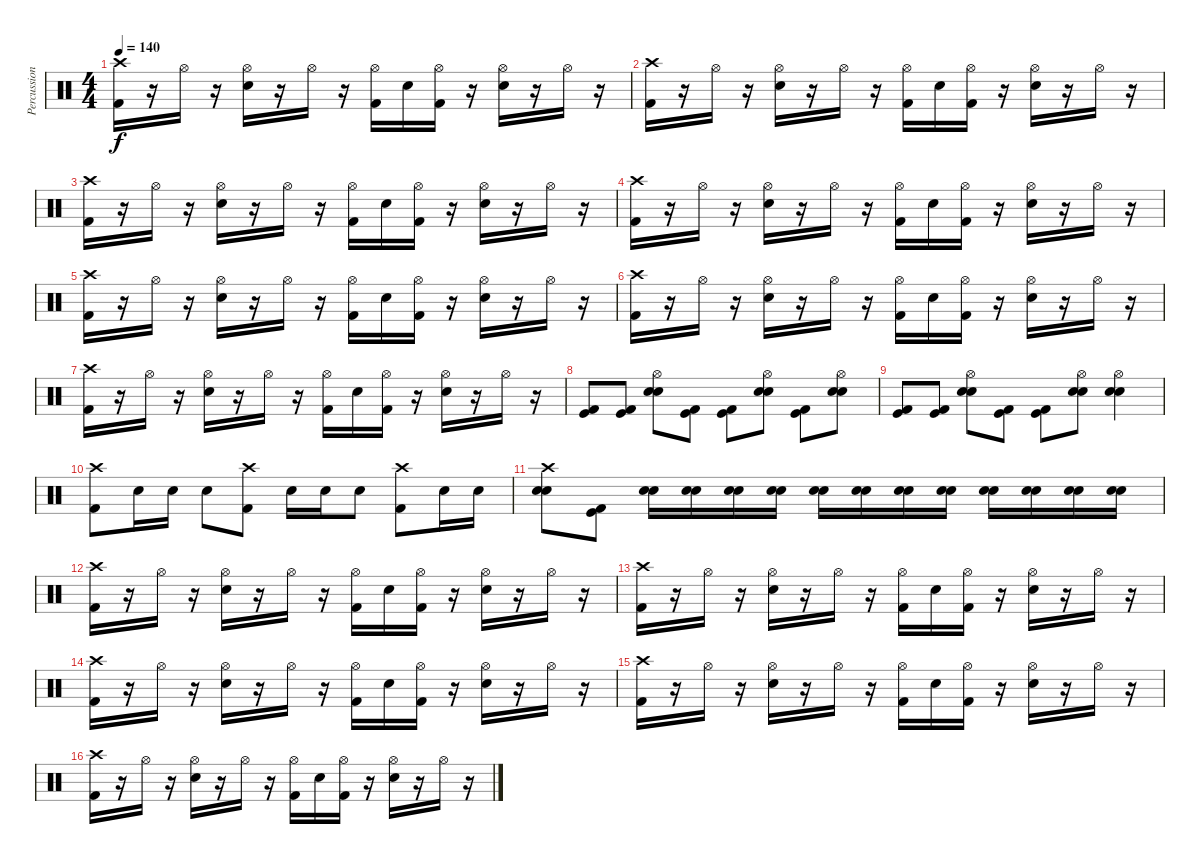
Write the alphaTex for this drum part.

\track ("Percussions" "Percussion") {instrument percussion}
\staff {score}
\articulation defaults
\ts (4 4)
\tempo 140
\clef neutral
\ks c
("Crash high (hit)" "Kick (hit) 2").16{dy f} r.16 "Hi-Hat (open)".16 r.16 ("Hi-Hat (open)" "Electric Snare (hit)").16 r.16 "Hi-Hat (open)".16 r.16 ("Hi-Hat (open)" "Kick (hit) 2").16 "Electric Snare (hit)".16 ("Hi-Hat (open)" "Kick (hit) 2").16 r.16 ("Hi-Hat (open)" "Electric Snare (hit)").16 r.16 "Hi-Hat (open)".16 r.16 |
("Crash high (hit)" "Kick (hit) 2").16 r.16 "Hi-Hat (open)".16 r.16 ("Hi-Hat (open)" "Electric Snare (hit)").16 r.16 "Hi-Hat (open)".16 r.16 ("Hi-Hat (open)" "Kick (hit) 2").16 "Electric Snare (hit)".16 ("Hi-Hat (open)" "Kick (hit) 2").16 r.16 ("Hi-Hat (open)" "Electric Snare (hit)").16 r.16 "Hi-Hat (open)".16 r.16 |
("Crash high (hit)" "Kick (hit) 2").16 r.16 "Hi-Hat (open)".16 r.16 ("Hi-Hat (open)" "Electric Snare (hit)").16 r.16 "Hi-Hat (open)".16 r.16 ("Hi-Hat (open)" "Kick (hit) 2").16 "Electric Snare (hit)".16 ("Hi-Hat (open)" "Kick (hit) 2").16 r.16 ("Hi-Hat (open)" "Electric Snare (hit)").16 r.16 "Hi-Hat (open)".16 r.16 |
("Crash high (hit)" "Kick (hit) 2").16 r.16 "Hi-Hat (open)".16 r.16 ("Hi-Hat (open)" "Electric Snare (hit)").16 r.16 "Hi-Hat (open)".16 r.16 ("Hi-Hat (open)" "Kick (hit) 2").16 "Electric Snare (hit)".16 ("Hi-Hat (open)" "Kick (hit) 2").16 r.16 ("Hi-Hat (open)" "Electric Snare (hit)").16 r.16 "Hi-Hat (open)".16 r.16 |
("Crash high (hit)" "Kick (hit) 2").16 r.16 "Hi-Hat (open)".16 r.16 ("Hi-Hat (open)" "Electric Snare (hit)").16 r.16 "Hi-Hat (open)".16 r.16 ("Hi-Hat (open)" "Kick (hit) 2").16 "Electric Snare (hit)".16 ("Hi-Hat (open)" "Kick (hit) 2").16 r.16 ("Hi-Hat (open)" "Electric Snare (hit)").16 r.16 "Hi-Hat (open)".16 r.16 |
("Crash high (hit)" "Kick (hit) 2").16 r.16 "Hi-Hat (open)".16 r.16 ("Hi-Hat (open)" "Electric Snare (hit)").16 r.16 "Hi-Hat (open)".16 r.16 ("Hi-Hat (open)" "Kick (hit) 2").16 "Electric Snare (hit)".16 ("Hi-Hat (open)" "Kick (hit) 2").16 r.16 ("Hi-Hat (open)" "Electric Snare (hit)").16 r.16 "Hi-Hat (open)".16 r.16 |
("Crash high (hit)" "Kick (hit) 2").16 r.16 "Hi-Hat (open)".16 r.16 ("Hi-Hat (open)" "Electric Snare (hit)").16 r.16 "Hi-Hat (open)".16 r.16 ("Hi-Hat (open)" "Kick (hit) 2").16 "Electric Snare (hit)".16 ("Hi-Hat (open)" "Kick (hit) 2").16 r.16 ("Hi-Hat (open)" "Electric Snare (hit)").16 r.16 "Hi-Hat (open)".16 r.16 |
("Kick (hit)" "Kick (hit) 2").8 ("Kick (hit)" "Kick (hit) 2").8 ("Hi-Hat (open)" "Snare (hit) 2" "Electric Snare (hit)").8 ("Kick (hit)" "Kick (hit) 2").8 ("Kick (hit)" "Kick (hit) 2").8 ("Hi-Hat (open)" "Snare (hit) 2" "Electric Snare (hit)").8 ("Kick (hit)" "Kick (hit) 2").8 ("Hi-Hat (open)" "Snare (hit) 2" "Electric Snare (hit)").8 |
("Kick (hit)" "Kick (hit) 2").8 ("Kick (hit)" "Kick (hit) 2").8 ("Hi-Hat (open)" "Snare (hit) 2" "Electric Snare (hit)").8 ("Kick (hit)" "Kick (hit) 2").8 ("Kick (hit)" "Kick (hit) 2").8 ("Hi-Hat (open)" "Snare (hit) 2" "Electric Snare (hit)").8 ("Hi-Hat (open)" "Snare (hit) 2" "Electric Snare (hit)").4 |
("Crash high (hit)" "Kick (hit) 2").8 "Electric Snare (hit)".16 "Electric Snare (hit)".16 "Electric Snare (hit)".8 ("Crash high (hit)" "Kick (hit) 2").8 "Electric Snare (hit)".16 "Electric Snare (hit)".16 "Electric Snare (hit)".8 ("Crash high (hit)" "Kick (hit) 2").8 "Electric Snare (hit)".16 "Electric Snare (hit)".16 |
("Crash high (hit)" "Snare (hit) 2" "Electric Snare (hit)").8 ("Kick (hit)" "Kick (hit) 2").8 ("Snare (hit) 2" "Electric Snare (hit)").16 ("Snare (hit) 2" "Electric Snare (hit)").16 ("Snare (hit) 2" "Electric Snare (hit)").16 ("Snare (hit) 2" "Electric Snare (hit)").16 ("Snare (hit) 2" "Electric Snare (hit)").16 ("Snare (hit) 2" "Electric Snare (hit)").16 ("Snare (hit) 2" "Electric Snare (hit)").16 ("Snare (hit) 2" "Electric Snare (hit)").16 ("Snare (hit) 2" "Electric Snare (hit)").16 ("Snare (hit) 2" "Electric Snare (hit)").16 ("Snare (hit) 2" "Electric Snare (hit)").16 ("Snare (hit) 2" "Electric Snare (hit)").16 |
("Crash high (hit)" "Kick (hit) 2").16 r.16 "Hi-Hat (open)".16 r.16 ("Hi-Hat (open)" "Electric Snare (hit)").16 r.16 "Hi-Hat (open)".16 r.16 ("Hi-Hat (open)" "Kick (hit) 2").16 "Electric Snare (hit)".16 ("Hi-Hat (open)" "Kick (hit) 2").16 r.16 ("Hi-Hat (open)" "Electric Snare (hit)").16 r.16 "Hi-Hat (open)".16 r.16 |
("Crash high (hit)" "Kick (hit) 2").16 r.16 "Hi-Hat (open)".16 r.16 ("Hi-Hat (open)" "Electric Snare (hit)").16 r.16 "Hi-Hat (open)".16 r.16 ("Hi-Hat (open)" "Kick (hit) 2").16 "Electric Snare (hit)".16 ("Hi-Hat (open)" "Kick (hit) 2").16 r.16 ("Hi-Hat (open)" "Electric Snare (hit)").16 r.16 "Hi-Hat (open)".16 r.16 |
("Crash high (hit)" "Kick (hit) 2").16 r.16 "Hi-Hat (open)".16 r.16 ("Hi-Hat (open)" "Electric Snare (hit)").16 r.16 "Hi-Hat (open)".16 r.16 ("Hi-Hat (open)" "Kick (hit) 2").16 "Electric Snare (hit)".16 ("Hi-Hat (open)" "Kick (hit) 2").16 r.16 ("Hi-Hat (open)" "Electric Snare (hit)").16 r.16 "Hi-Hat (open)".16 r.16 |
("Crash high (hit)" "Kick (hit) 2").16 r.16 "Hi-Hat (open)".16 r.16 ("Hi-Hat (open)" "Electric Snare (hit)").16 r.16 "Hi-Hat (open)".16 r.16 ("Hi-Hat (open)" "Kick (hit) 2").16 "Electric Snare (hit)".16 ("Hi-Hat (open)" "Kick (hit) 2").16 r.16 ("Hi-Hat (open)" "Electric Snare (hit)").16 r.16 "Hi-Hat (open)".16 r.16 |
("Crash high (hit)" "Kick (hit) 2").16 r.16 "Hi-Hat (open)".16 r.16 ("Hi-Hat (open)" "Electric Snare (hit)").16 r.16 "Hi-Hat (open)".16 r.16 ("Hi-Hat (open)" "Kick (hit) 2").16 "Electric Snare (hit)".16 ("Hi-Hat (open)" "Kick (hit) 2").16 r.16 ("Hi-Hat (open)" "Electric Snare (hit)").16 r.16 "Hi-Hat (open)".16 r.16
